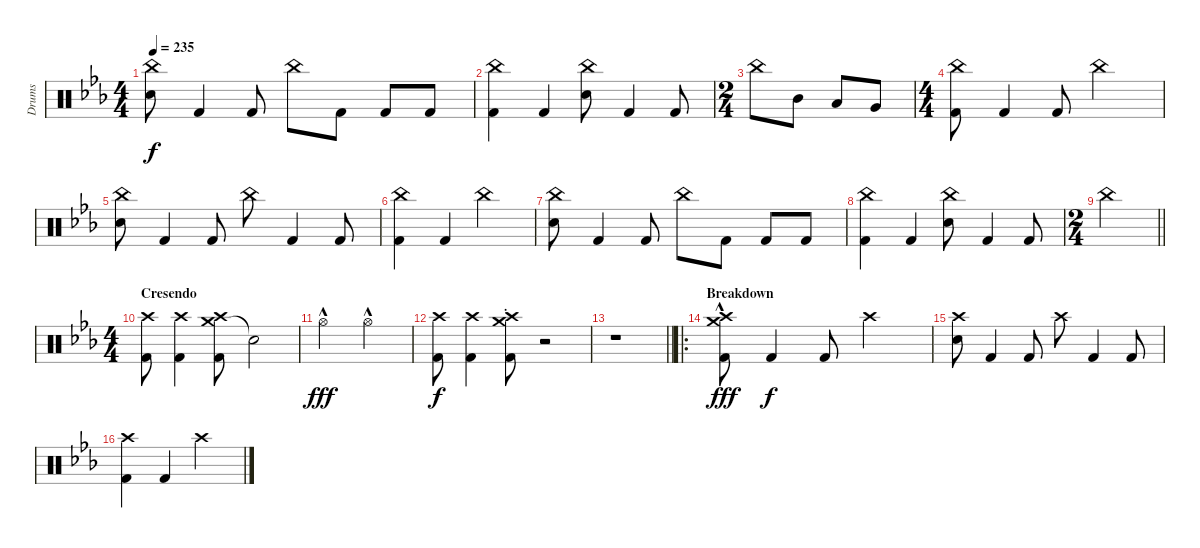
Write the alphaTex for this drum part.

\track ("Drums" "Drums") {instrument percussion}
\staff {score}
\articulation defaults
\ts (4 4)
\tempo 235
\clef neutral
\ks cminor
("China (hit)" "Electric Snare (hit)").8{dy f} "Kick (hit) 2".4 "Kick (hit) 2".8 "China (hit)".8 "Kick (hit) 2".8 "Kick (hit) 2".8 "Kick (hit) 2".8 |
("China (hit)" "Kick (hit) 2").4 "Kick (hit) 2".4 ("China (hit)" "Electric Snare (hit)").8 "Kick (hit) 2".4 "Kick (hit) 2".8 |
\ts (2 4)
"China (hit)".8 "Mid Tom (hit)".8 "Low Tom (hit)".8 "Very Low Tom (hit)".8 |
\ts (4 4)
("China (hit)" "Kick (hit) 2").8 "Kick (hit) 2".4 "Kick (hit) 2".8 "China (hit)".2 |
("China (hit)" "Electric Snare (hit)").8 "Kick (hit) 2".4 "Kick (hit) 2".8 "China (hit)".8 "Kick (hit) 2".4 "Kick (hit) 2".8 |
("China (hit)" "Kick (hit) 2").4 "Kick (hit) 2".4 "China (hit)".2 |
("China (hit)" "Electric Snare (hit)").8 "Kick (hit) 2".4 "Kick (hit) 2".8 "China (hit)".8 "Kick (hit) 2".8 "Kick (hit) 2".8 "Kick (hit) 2".8 |
("China (hit)" "Kick (hit) 2").4 "Kick (hit) 2".4 ("China (hit)" "Electric Snare (hit)").8 "Kick (hit) 2".4 "Kick (hit) 2".8 |
\ts (2 4)
\barLineRight lightlight "China (hit)".2
|
\ts (4 4)
\section ("" "Cresendo")
("Crash high (hit)" "Kick (hit) 2").8 ("Crash high (hit)" "Kick (hit) 2").4 ("Crash medium (hit)" "Crash high (hit)" "Kick (hit) 2").8 "Snare (hit)"{t}.2 |
"Hi-Hat (open)"{hac}.2{dy fff} "Hi-Hat (open)"{hac}.2 |
("Crash high (hit)" "Kick (hit) 2").8{dy f} ("Crash high (hit)" "Kick (hit) 2").4 ("Crash medium (hit)"{st} "Crash high (hit)"{st} "Kick (hit) 2").8 r.2{volume 0} |
\barLineRight lightlight
r.1 |
\ro
\section ("" "Breakdown")
("Crash medium (hit)" "Crash high (hit)" "Kick (hit) 2"{hac}).8{dy fff volume 14} "Kick (hit) 2".4{dy f} "Kick (hit) 2".8 "Crash high (hit)".2 |
("Crash high (hit)" "Electric Snare (hit)").8 "Kick (hit) 2".4 "Kick (hit) 2".8 "Crash high (hit)".8 "Kick (hit) 2".4 "Kick (hit) 2".8 |
("Crash high (hit)" "Kick (hit) 2").4 "Kick (hit) 2".4 "Crash high (hit)".2
